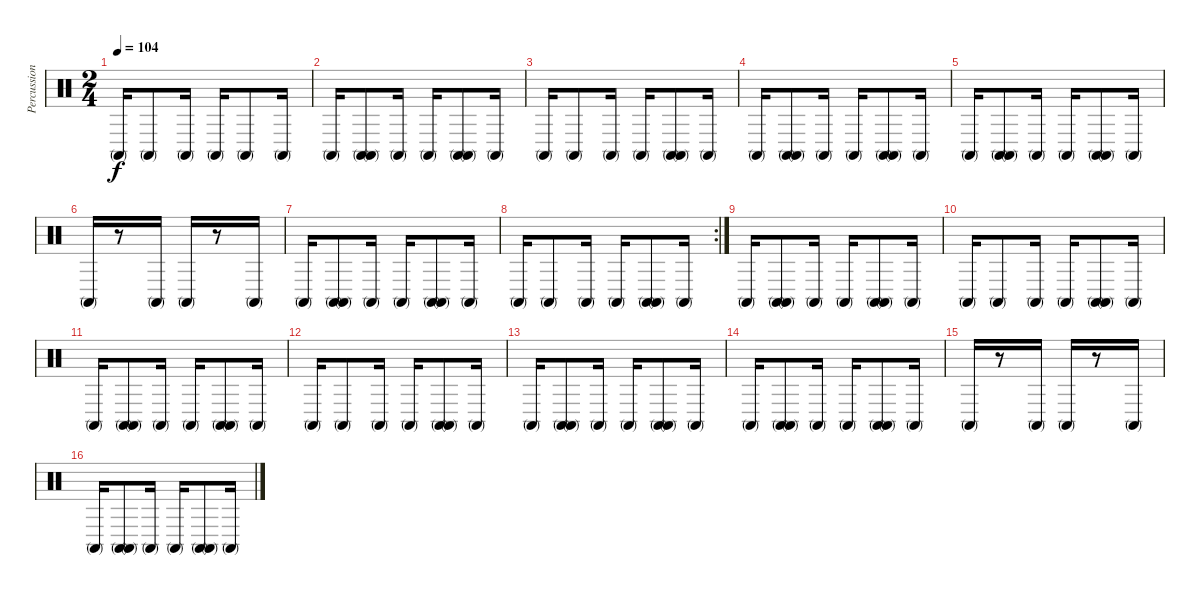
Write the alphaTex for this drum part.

\track ("Percussion" "Percussion") {instrument percussion}
\staff {score}
\articulation defaults
\ts (2 4)
\tempo 104
\clef neutral
\ks c "Conga high (mute)".16{dy f} "Conga high (mute)".8 "Conga high (mute)".16 "Conga high (mute)".16 "Conga high (mute)".8 "Conga high (mute)".16
|
"Conga high (mute)".16 ("Conga high (mute)" "Conga high (mute)").8 "Conga high (mute)".16 "Conga high (mute)".16 ("Conga high (mute)" "Conga high (mute)").8 "Conga high (mute)".16 |
"Conga high (mute)".16 "Conga high (mute)".8 "Conga high (mute)".16 "Conga high (mute)".16 ("Conga high (mute)" "Conga high (mute)").8 "Conga high (mute)".16 |
"Conga high (mute)".16 ("Conga high (mute)" "Conga high (mute)").8 "Conga high (mute)".16 "Conga high (mute)".16 ("Conga high (mute)" "Conga high (mute)").8 "Conga high (mute)".16 |
"Conga high (mute)".16 ("Conga high (mute)" "Conga high (mute)").8 "Conga high (mute)".16 "Conga high (mute)".16 ("Conga high (mute)" "Conga high (mute)").8 "Conga high (mute)".16 |
"Conga high (mute)".16 r.8 "Conga high (mute)".16 "Conga high (mute)".16 r.8 "Conga high (mute)".16 |
"Conga high (mute)".16 ("Conga high (mute)" "Conga high (mute)").8 "Conga high (mute)".16 "Conga high (mute)".16 ("Conga high (mute)" "Conga high (mute)").8 "Conga high (mute)".16 |
\rc 2 "Conga high (mute)".16 "Conga high (mute)".8 "Conga high (mute)".16 "Conga high (mute)".16
("Conga high (mute)" "Conga high (mute)").8 "Conga high (mute)".16 |
"Conga high (mute)".16 ("Conga high (mute)" "Conga high (mute)").8 "Conga high (mute)".16 "Conga high (mute)".16 ("Conga high (mute)" "Conga high (mute)").8 "Conga high (mute)".16 |
"Conga high (mute)".16 "Conga high (mute)".8 "Conga high (mute)".16 "Conga high (mute)".16 ("Conga high (mute)" "Conga high (mute)").8 "Conga high (mute)".16 |
"Conga high (mute)".16 ("Conga high (mute)" "Conga high (mute)").8 "Conga high (mute)".16 "Conga high (mute)".16 ("Conga high (mute)" "Conga high (mute)").8 "Conga high (mute)".16 |
"Conga high (mute)".16 "Conga high (mute)".8 "Conga high (mute)".16 "Conga high (mute)".16 ("Conga high (mute)" "Conga high (mute)").8 "Conga high (mute)".16 |
"Conga high (mute)".16 ("Conga high (mute)" "Conga high (mute)").8 "Conga high (mute)".16 "Conga high (mute)".16 ("Conga high (mute)" "Conga high (mute)").8 "Conga high (mute)".16 |
"Conga high (mute)".16 ("Conga high (mute)" "Conga high (mute)").8 "Conga high (mute)".16 "Conga high (mute)".16 ("Conga high (mute)" "Conga high (mute)").8 "Conga high (mute)".16 |
"Conga high (mute)".16 r.8 "Conga high (mute)".16 "Conga high (mute)".16 r.8 "Conga high (mute)".16 |
"Conga high (mute)".16 ("Conga high (mute)" "Conga high (mute)").8 "Conga high (mute)".16 "Conga high (mute)".16 ("Conga high (mute)" "Conga high (mute)").8 "Conga high (mute)".16
